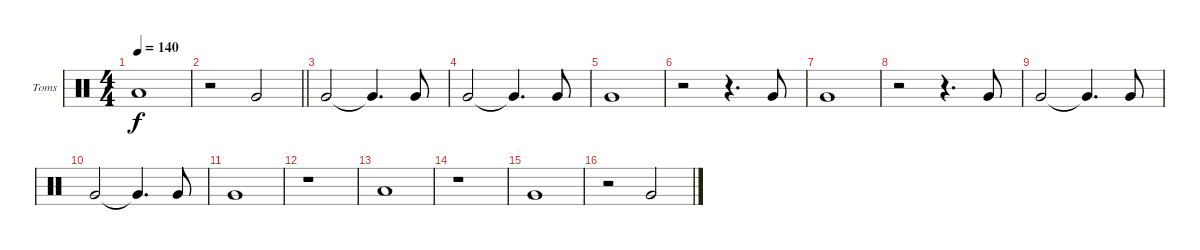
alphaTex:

\bracketExtendMode groupsimilarinstruments
\firstSystemTrackNameOrientation horizontal
\otherSystemsTrackNameOrientation horizontal
\track ("Toms" "Toms") {instrument percussion}
\staff {score}
\articulation defaults
\ts (4 4)
\tempo 140
\clef neutral
\scale
0.333333
\ks c "Low Tom (hit)".1{dy f}
|
\scale
0.311111
\barLineRight lightlight
r.2 "Very Low Tom (hit)".2 |
\scale
0.377778 "Very Low Tom (hit)".2 "Very Low Tom (hit)"{t}.4{d} "Very Low Tom (hit)".8 |
\scale
0.311111 "Very Low Tom (hit)".2 "Very Low Tom (hit)"{t}.4{d} "Very Low Tom (hit)".8 |
\scale
0.333333 "Very Low Tom (hit)".1 |
\scale
0.333333 r.2 r.4{d} "Very Low Tom (hit)".8 |
\scale
0.333333 "Very Low Tom (hit)".1 |
\scale
0.321839 r.2 r.4{d} "Very Low Tom (hit)".8 |
\scale
0.321839 "Very Low Tom (hit)".2 "Very Low Tom (hit)"{t}.4{d} "Very Low Tom (hit)".8 |
\scale
0.356322 "Very Low Tom (hit)".2 "Very Low Tom (hit)"{t}.4{d} "Very Low Tom (hit)".8 |
"Very Low Tom (hit)".1 |
r.1 |
"Low Tom (hit)".1 |
r.1 |
"Very Low Tom (hit)".1 |
r.2 "Very Low Tom (hit)".2
